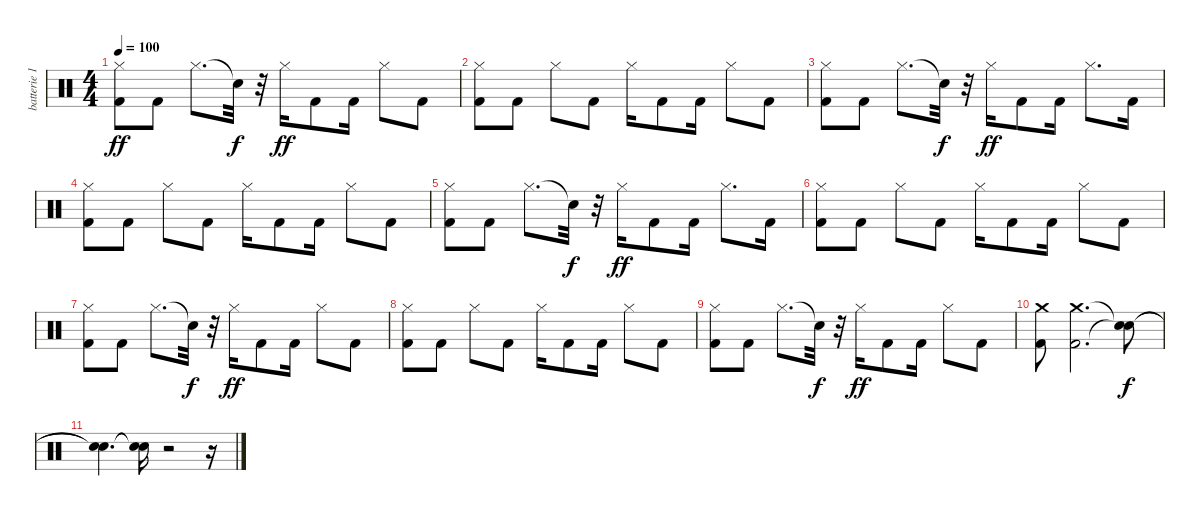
\track ("batterie 1" "batterie 1") {instrument percussion}
\staff {score}
\articulation defaults
\ts (4 4)
\tempo 100
\clef neutral
\ks c
("Kick (hit) 2" "Hi-Hat (closed)").8{dy ff} "Kick (hit) 2".8 "Hi-Hat (closed)".8{d} "Snare (hit)"{t}.32{dy f} r.32 "Hi-Hat (closed)".16{dy ff} "Kick (hit) 2".8 "Kick (hit) 2".16 "Hi-Hat (closed)".8 "Kick (hit) 2".8 |
("Kick (hit) 2" "Hi-Hat (closed)").8 "Kick (hit) 2".8 "Hi-Hat (closed)".8 "Kick (hit) 2".8 "Hi-Hat (closed)".16 "Kick (hit) 2".8 "Kick (hit) 2".16 "Hi-Hat (closed)".8 "Kick (hit) 2".8 |
("Kick (hit) 2" "Hi-Hat (closed)").8 "Kick (hit) 2".8 "Hi-Hat (closed)".8{d} "Snare (hit)"{t}.32{dy f} r.32 "Hi-Hat (closed)".16{dy ff} "Kick (hit) 2".8 "Kick (hit) 2".16 "Hi-Hat (closed)".8{d} "Kick (hit) 2".16 |
("Kick (hit) 2" "Hi-Hat (closed)").8 "Kick (hit) 2".8 "Hi-Hat (closed)".8 "Kick (hit) 2".8 "Hi-Hat (closed)".16 "Kick (hit) 2".8 "Kick (hit) 2".16 "Hi-Hat (closed)".8 "Kick (hit) 2".8 |
("Kick (hit) 2" "Hi-Hat (closed)").8 "Kick (hit) 2".8 "Hi-Hat (closed)".8{d} "Snare (hit)"{t}.32{dy f} r.32 "Hi-Hat (closed)".16{dy ff} "Kick (hit) 2".8 "Kick (hit) 2".16 "Hi-Hat (closed)".8{d} "Kick (hit) 2".16 |
("Kick (hit) 2" "Hi-Hat (closed)").8 "Kick (hit) 2".8 "Hi-Hat (closed)".8 "Kick (hit) 2".8 "Hi-Hat (closed)".16 "Kick (hit) 2".8 "Kick (hit) 2".16 "Hi-Hat (closed)".8 "Kick (hit) 2".8 |
("Kick (hit) 2" "Hi-Hat (closed)").8 "Kick (hit) 2".8 "Hi-Hat (closed)".8{d} "Snare (hit)"{t}.32{dy f} r.32 "Hi-Hat (closed)".16{dy ff} "Kick (hit) 2".8 "Kick (hit) 2".16 "Hi-Hat (closed)".8 "Kick (hit) 2".8 |
("Kick (hit) 2" "Hi-Hat (closed)").8 "Kick (hit) 2".8 "Hi-Hat (closed)".8 "Kick (hit) 2".8 "Hi-Hat (closed)".16 "Kick (hit) 2".8 "Kick (hit) 2".16 "Hi-Hat (closed)".8 "Kick (hit) 2".8 |
("Kick (hit) 2" "Hi-Hat (closed)").8 "Kick (hit) 2".8 "Hi-Hat (closed)".8{d} "Snare (hit)"{t}.32{dy f} r.32 "Hi-Hat (closed)".16{dy ff} "Kick (hit) 2".8 "Kick (hit) 2".16 "Hi-Hat (closed)".8 "Kick (hit) 2".8 |
("Kick (hit) 2" "Crash medium (hit)").8 ("Kick (hit) 2" "Crash medium (hit)").2{d} ("Snare (hit)"{t} "Snare (hit)"{t}).8{dy f} |
("Snare (hit)"{t} "Snare (hit)"{t}).4{d} ("Snare (hit)"{t} "Snare (hit)"{t}).16 r.2 r.16
